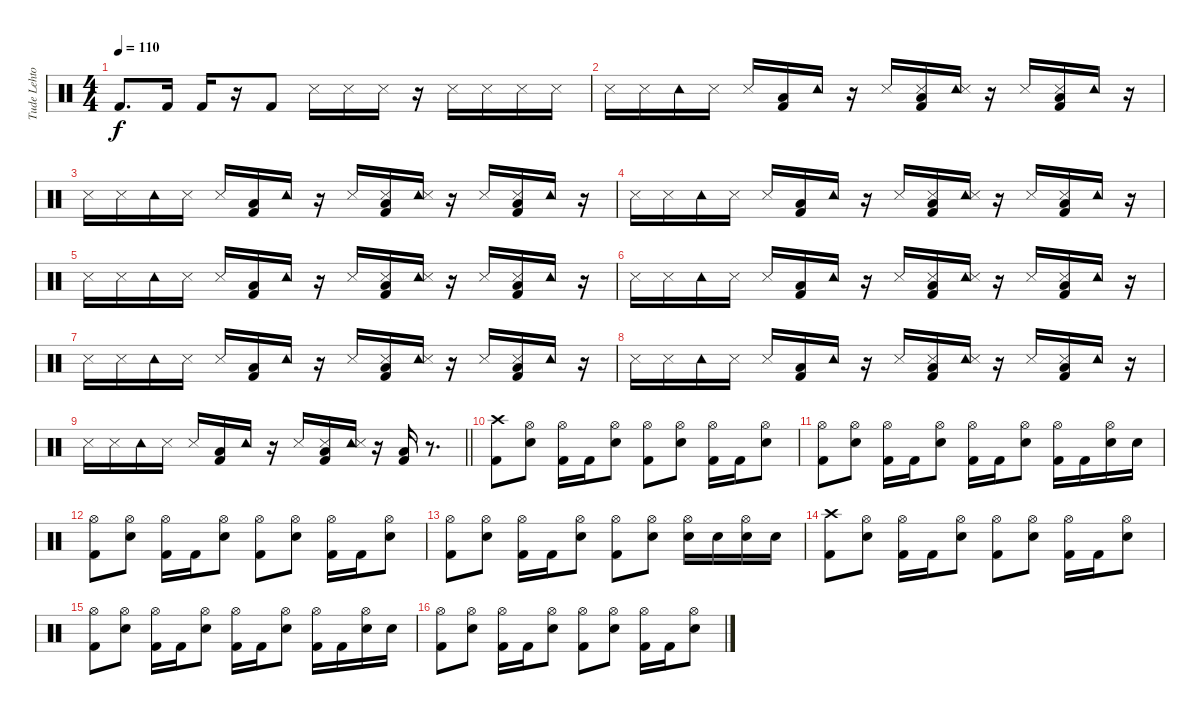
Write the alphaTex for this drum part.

\track ("Tude Lehtonen" "Tude Lehto") {instrument percussion}
\staff {score}
\articulation defaults
\ts (4 4)
\tempo 110
\clef neutral
\ks c "Kick (hit) 2".8{d dy f} "Kick (hit) 2".16 "Kick (hit) 2".16
r.16 "Kick (hit) 2".8 "Metronome (hit)".16 "Metronome (hit)".16 "Metronome (hit)".16 r.16 "Metronome (hit)".16 "Metronome (hit)".16 "Metronome (hit)".16 "Metronome (hit)".16 |
"Metronome (hit)".16 "Metronome (hit)".16 "Tambourine (hit)".16 "Metronome (hit)".16 "Metronome (hit)".16 ("Low Floor Tom (hit)" "Kick (hit) 2").16 "Tambourine (hit)".16 r.16 "Metronome (hit)".16 ("Metronome (hit)" "Low Floor Tom (hit)" "Kick (hit) 2").16 ("Tambourine (hit)" "Metronome (hit)").16 r.16 "Metronome (hit)".16 ("Metronome (hit)" "Low Floor Tom (hit)" "Kick (hit) 2").16 "Tambourine (hit)".16 r.16 |
"Metronome (hit)".16 "Metronome (hit)".16 "Tambourine (hit)".16 "Metronome (hit)".16 "Metronome (hit)".16 ("Low Floor Tom (hit)" "Kick (hit) 2").16 "Tambourine (hit)".16 r.16 "Metronome (hit)".16 ("Metronome (hit)" "Low Floor Tom (hit)" "Kick (hit) 2").16 ("Tambourine (hit)" "Metronome (hit)").16 r.16 "Metronome (hit)".16 ("Metronome (hit)" "Low Floor Tom (hit)" "Kick (hit) 2").16 "Tambourine (hit)".16 r.16 |
"Metronome (hit)".16 "Metronome (hit)".16 "Tambourine (hit)".16 "Metronome (hit)".16 "Metronome (hit)".16 ("Low Floor Tom (hit)" "Kick (hit) 2").16 "Tambourine (hit)".16 r.16 "Metronome (hit)".16 ("Metronome (hit)" "Low Floor Tom (hit)" "Kick (hit) 2").16 ("Tambourine (hit)" "Metronome (hit)").16 r.16 "Metronome (hit)".16 ("Metronome (hit)" "Low Floor Tom (hit)" "Kick (hit) 2").16 "Tambourine (hit)".16 r.16 |
"Metronome (hit)".16 "Metronome (hit)".16 "Tambourine (hit)".16 "Metronome (hit)".16 "Metronome (hit)".16 ("Low Floor Tom (hit)" "Kick (hit) 2").16 "Tambourine (hit)".16 r.16 "Metronome (hit)".16 ("Metronome (hit)" "Low Floor Tom (hit)" "Kick (hit) 2").16 ("Tambourine (hit)" "Metronome (hit)").16 r.16 "Metronome (hit)".16 ("Metronome (hit)" "Low Floor Tom (hit)" "Kick (hit) 2").16 "Tambourine (hit)".16 r.16 |
"Metronome (hit)".16 "Metronome (hit)".16 "Tambourine (hit)".16 "Metronome (hit)".16 "Metronome (hit)".16 ("Low Floor Tom (hit)" "Kick (hit) 2").16 "Tambourine (hit)".16 r.16 "Metronome (hit)".16 ("Metronome (hit)" "Low Floor Tom (hit)" "Kick (hit) 2").16 ("Tambourine (hit)" "Metronome (hit)").16 r.16 "Metronome (hit)".16 ("Metronome (hit)" "Low Floor Tom (hit)" "Kick (hit) 2").16 "Tambourine (hit)".16 r.16 |
"Metronome (hit)".16 "Metronome (hit)".16 "Tambourine (hit)".16 "Metronome (hit)".16 "Metronome (hit)".16 ("Low Floor Tom (hit)" "Kick (hit) 2").16 "Tambourine (hit)".16 r.16 "Metronome (hit)".16 ("Metronome (hit)" "Low Floor Tom (hit)" "Kick (hit) 2").16 ("Tambourine (hit)" "Metronome (hit)").16 r.16 "Metronome (hit)".16 ("Metronome (hit)" "Low Floor Tom (hit)" "Kick (hit) 2").16 "Tambourine (hit)".16 r.16 |
"Metronome (hit)".16 "Metronome (hit)".16 "Tambourine (hit)".16 "Metronome (hit)".16 "Metronome (hit)".16 ("Low Floor Tom (hit)" "Kick (hit) 2").16 "Tambourine (hit)".16 r.16 "Metronome (hit)".16 ("Metronome (hit)" "Low Floor Tom (hit)" "Kick (hit) 2").16 ("Tambourine (hit)" "Metronome (hit)").16 r.16 "Metronome (hit)".16 ("Metronome (hit)" "Low Floor Tom (hit)" "Kick (hit) 2").16 "Tambourine (hit)".16 r.16 |
\barLineRight lightlight "Metronome (hit)".16 "Metronome (hit)".16 "Tambourine (hit)".16 "Metronome (hit)".16 "Metronome (hit)".16
("Low Floor Tom (hit)" "Kick (hit) 2").16 "Tambourine (hit)".16 r.16 "Metronome (hit)".16 ("Metronome (hit)" "Low Floor Tom (hit)" "Kick (hit) 2").16 ("Tambourine (hit)" "Metronome (hit)").16 r.16 ("Low Floor Tom (hit)" "Kick (hit) 2").16 r.8{d} |
\section ("" "")
("Crash high (hit)" "Kick (hit) 2").8{volume 9} ("Hi-Hat (open)" "Snare (hit) 2").8 ("Hi-Hat (open)" "Kick (hit) 2").16 "Kick (hit) 2".16 ("Hi-Hat (open)" "Snare (hit) 2").8 ("Hi-Hat (open)" "Kick (hit) 2").8 ("Hi-Hat (open)" "Snare (hit) 2").8 ("Hi-Hat (open)" "Kick (hit) 2").16 "Kick (hit) 2".16 ("Hi-Hat (open)" "Snare (hit) 2").8 |
("Hi-Hat (open)" "Kick (hit) 2").8 ("Hi-Hat (open)" "Snare (hit) 2").8 ("Hi-Hat (open)" "Kick (hit) 2").16 "Kick (hit) 2".16 ("Hi-Hat (open)" "Snare (hit) 2").8 ("Hi-Hat (open)" "Kick (hit) 2").16 "Kick (hit) 2".16 ("Hi-Hat (open)" "Snare (hit) 2").8 ("Hi-Hat (open)" "Kick (hit) 2").16 "Kick (hit) 2".16 ("Hi-Hat (open)" "Snare (hit) 2").16 "Snare (hit) 2".16 |
("Hi-Hat (open)" "Kick (hit) 2").8 ("Hi-Hat (open)" "Snare (hit) 2").8 ("Hi-Hat (open)" "Kick (hit) 2").16 "Kick (hit) 2".16 ("Hi-Hat (open)" "Snare (hit) 2").8 ("Hi-Hat (open)" "Kick (hit) 2").8 ("Hi-Hat (open)" "Snare (hit) 2").8 ("Hi-Hat (open)" "Kick (hit) 2").16 "Kick (hit) 2".16 ("Hi-Hat (open)" "Snare (hit) 2").8 |
("Hi-Hat (open)" "Kick (hit) 2").8 ("Hi-Hat (open)" "Snare (hit) 2").8 ("Hi-Hat (open)" "Kick (hit) 2").16 "Kick (hit) 2".16 ("Hi-Hat (open)" "Snare (hit) 2").8 ("Hi-Hat (open)" "Kick (hit) 2").8 ("Hi-Hat (open)" "Snare (hit) 2").8 ("Hi-Hat (open)" "Snare (hit) 2").16 "Snare (hit) 2".16 ("Hi-Hat (open)" "Snare (hit) 2").16 "Snare (hit) 2".16 |
("Crash high (hit)" "Kick (hit) 2").8 ("Hi-Hat (open)" "Snare (hit) 2").8 ("Hi-Hat (open)" "Kick (hit) 2").16 "Kick (hit) 2".16 ("Hi-Hat (open)" "Snare (hit) 2").8 ("Hi-Hat (open)" "Kick (hit) 2").8 ("Hi-Hat (open)" "Snare (hit) 2").8 ("Hi-Hat (open)" "Kick (hit) 2").16 "Kick (hit) 2".16 ("Hi-Hat (open)" "Snare (hit) 2").8 |
("Hi-Hat (open)" "Kick (hit) 2").8 ("Hi-Hat (open)" "Snare (hit) 2").8 ("Hi-Hat (open)" "Kick (hit) 2").16 "Kick (hit) 2".16 ("Hi-Hat (open)" "Snare (hit) 2").8 ("Hi-Hat (open)" "Kick (hit) 2").16 "Kick (hit) 2".16 ("Hi-Hat (open)" "Snare (hit) 2").8 ("Hi-Hat (open)" "Kick (hit) 2").16 "Kick (hit) 2".16 ("Hi-Hat (open)" "Snare (hit) 2").16 "Snare (hit) 2".16 |
("Hi-Hat (open)" "Kick (hit) 2").8 ("Hi-Hat (open)" "Snare (hit) 2").8 ("Hi-Hat (open)" "Kick (hit) 2").16 "Kick (hit) 2".16 ("Hi-Hat (open)" "Snare (hit) 2").8 ("Hi-Hat (open)" "Kick (hit) 2").8 ("Hi-Hat (open)" "Snare (hit) 2").8 ("Hi-Hat (open)" "Kick (hit) 2").16 "Kick (hit) 2".16 ("Hi-Hat (open)" "Snare (hit) 2").8
